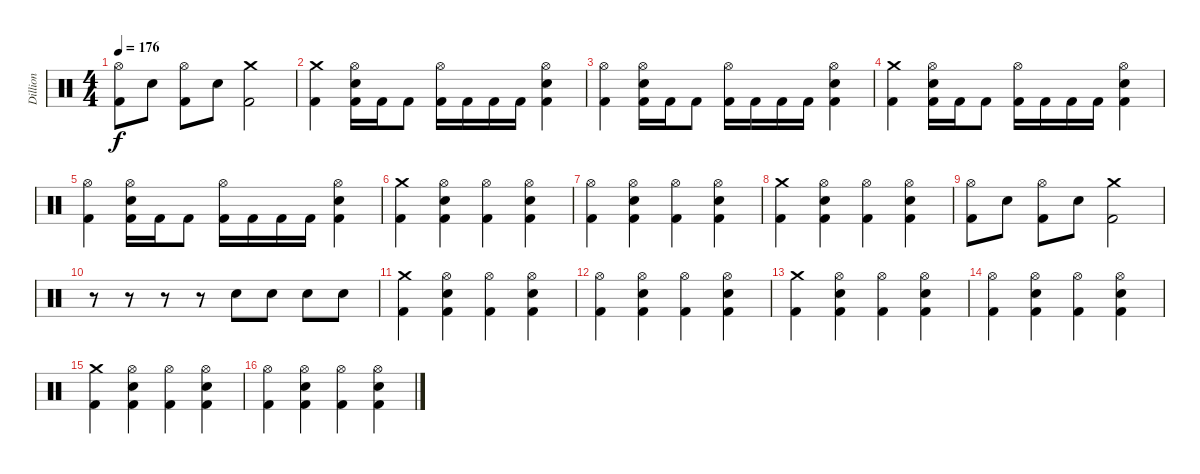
\track ("Dillion" "Dillion") {instrument percussion}
\staff {score}
\articulation defaults
\ts (4 4)
\tempo 176
\clef neutral
\ks c
("Hi-Hat (open)" "Kick (hit) 2").8{dy f} "Electric Snare (hit)".8 ("Hi-Hat (open)" "Kick (hit) 2").8 "Electric Snare (hit)".8 ("Crash medium (hit)" "Kick (hit) 2").2 |
("Crash medium (hit)" "Kick (hit) 2").4 ("Hi-Hat (open)" "Electric Snare (hit)" "Kick (hit) 2").16 "Kick (hit) 2".16 "Kick (hit) 2".8 ("Hi-Hat (open)" "Kick (hit) 2").16 "Kick (hit) 2".16 "Kick (hit) 2".16 "Kick (hit) 2".16 ("Hi-Hat (open)" "Electric Snare (hit)" "Kick (hit) 2").4 |
("Hi-Hat (open)" "Kick (hit) 2").4 ("Hi-Hat (open)" "Electric Snare (hit)" "Kick (hit) 2").16 "Kick (hit) 2".16 "Kick (hit) 2".8 ("Hi-Hat (open)" "Kick (hit) 2").16 "Kick (hit) 2".16 "Kick (hit) 2".16 "Kick (hit) 2".16 ("Hi-Hat (open)" "Electric Snare (hit)" "Kick (hit) 2").4 |
("Crash medium (hit)" "Kick (hit) 2").4 ("Hi-Hat (open)" "Electric Snare (hit)" "Kick (hit) 2").16 "Kick (hit) 2".16 "Kick (hit) 2".8 ("Hi-Hat (open)" "Kick (hit) 2").16 "Kick (hit) 2".16 "Kick (hit) 2".16 "Kick (hit) 2".16 ("Hi-Hat (open)" "Electric Snare (hit)" "Kick (hit) 2").4 |
("Hi-Hat (open)" "Kick (hit) 2").4 ("Hi-Hat (open)" "Electric Snare (hit)" "Kick (hit) 2").16 "Kick (hit) 2".16 "Kick (hit) 2".8 ("Hi-Hat (open)" "Kick (hit) 2").16 "Kick (hit) 2".16 "Kick (hit) 2".16 "Kick (hit) 2".16 ("Hi-Hat (open)" "Electric Snare (hit)" "Kick (hit) 2").4 |
("Crash medium (hit)" "Kick (hit) 2").4 ("Hi-Hat (open)" "Electric Snare (hit)" "Kick (hit) 2").4 ("Hi-Hat (open)" "Kick (hit) 2").4 ("Hi-Hat (open)" "Electric Snare (hit)" "Kick (hit) 2").4 |
("Hi-Hat (open)" "Kick (hit) 2").4 ("Hi-Hat (open)" "Electric Snare (hit)" "Kick (hit) 2").4 ("Hi-Hat (open)" "Kick (hit) 2").4 ("Hi-Hat (open)" "Electric Snare (hit)" "Kick (hit) 2").4 |
("Crash medium (hit)" "Kick (hit) 2").4 ("Hi-Hat (open)" "Electric Snare (hit)" "Kick (hit) 2").4 ("Hi-Hat (open)" "Kick (hit) 2").4 ("Hi-Hat (open)" "Electric Snare (hit)" "Kick (hit) 2").4 |
("Hi-Hat (open)" "Kick (hit) 2").8 "Electric Snare (hit)".8 ("Hi-Hat (open)" "Kick (hit) 2").8 "Electric Snare (hit)".8 ("Crash medium (hit)" "Kick (hit) 2").2 |
r.8 r.8 r.8 r.8 "Electric Snare (hit)".8 "Electric Snare (hit)".8 "Electric Snare (hit)".8 "Electric Snare (hit)".8 |
("Crash medium (hit)" "Kick (hit) 2").4 ("Hi-Hat (open)" "Electric Snare (hit)" "Kick (hit) 2").4 ("Hi-Hat (open)" "Kick (hit) 2").4 ("Hi-Hat (open)" "Electric Snare (hit)" "Kick (hit) 2").4 |
("Hi-Hat (open)" "Kick (hit) 2").4 ("Hi-Hat (open)" "Electric Snare (hit)" "Kick (hit) 2").4 ("Hi-Hat (open)" "Kick (hit) 2").4 ("Hi-Hat (open)" "Electric Snare (hit)" "Kick (hit) 2").4 |
("Crash medium (hit)" "Kick (hit) 2").4 ("Hi-Hat (open)" "Electric Snare (hit)" "Kick (hit) 2").4 ("Hi-Hat (open)" "Kick (hit) 2").4 ("Hi-Hat (open)" "Electric Snare (hit)" "Kick (hit) 2").4 |
("Hi-Hat (open)" "Kick (hit) 2").4 ("Hi-Hat (open)" "Electric Snare (hit)" "Kick (hit) 2").4 ("Hi-Hat (open)" "Kick (hit) 2").4 ("Hi-Hat (open)" "Electric Snare (hit)" "Kick (hit) 2").4 |
("Crash medium (hit)" "Kick (hit) 2").4 ("Hi-Hat (open)" "Electric Snare (hit)" "Kick (hit) 2").4 ("Hi-Hat (open)" "Kick (hit) 2").4 ("Hi-Hat (open)" "Electric Snare (hit)" "Kick (hit) 2").4 |
("Hi-Hat (open)" "Kick (hit) 2").4 ("Hi-Hat (open)" "Electric Snare (hit)" "Kick (hit) 2").4 ("Hi-Hat (open)" "Kick (hit) 2").4 ("Hi-Hat (open)" "Electric Snare (hit)" "Kick (hit) 2").4
